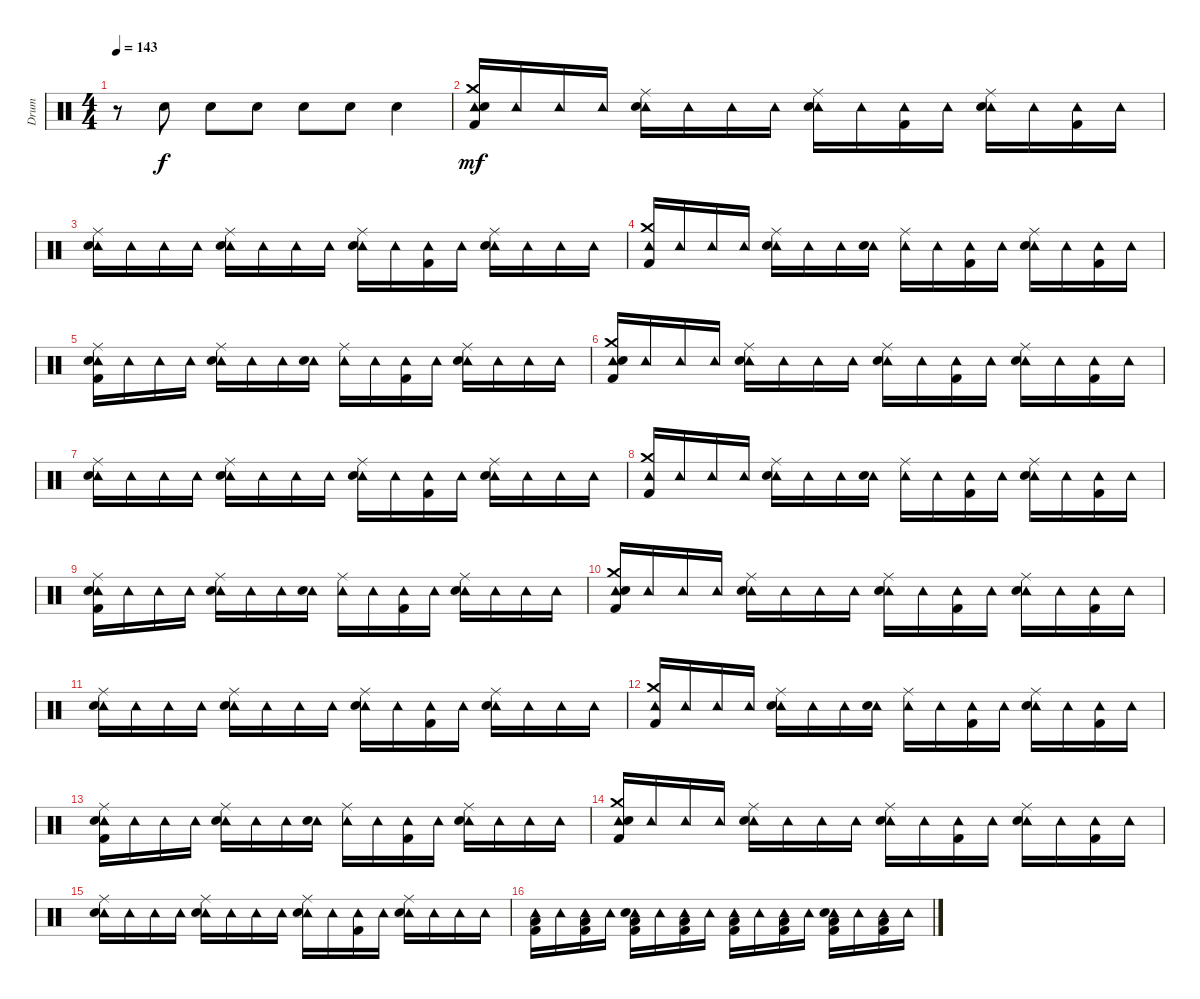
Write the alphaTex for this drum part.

\track ("Drum" "Drum") {instrument percussion}
\staff {score}
\articulation defaults
\ts (4 4)
\tempo 143
\clef neutral
\ks c
r.8{dy f} "Snare (hit) 2".8 "Snare (hit) 2".8 "Snare (hit) 2".8 "Snare (hit) 2".8 "Snare (hit) 2".8 "Snare (hit) 2".4 |
("Tambourine (hit)" "Crash medium (hit)" "Snare (hit) 2" "Kick (hit) 2").16{dy mf} "Tambourine (hit)".16 "Tambourine (hit)".16 "Tambourine (hit)".16 ("Tambourine (hit)" "Ride (middle)" "Snare (hit) 2").16 "Tambourine (hit)".16 "Tambourine (hit)".16 "Tambourine (hit)".16 ("Tambourine (hit)" "Ride (middle)" "Snare (hit) 2").16 "Tambourine (hit)".16 ("Tambourine (hit)" "Kick (hit) 2").16 "Tambourine (hit)".16 ("Tambourine (hit)" "Ride (middle)" "Snare (hit) 2").16 "Tambourine (hit)".16 ("Tambourine (hit)" "Kick (hit) 2").16 "Tambourine (hit)".16 |
("Tambourine (hit)" "Ride (middle)" "Snare (hit) 2").16 "Tambourine (hit)".16 "Tambourine (hit)".16 "Tambourine (hit)".16 ("Tambourine (hit)" "Ride (middle)" "Snare (hit) 2").16 "Tambourine (hit)".16 "Tambourine (hit)".16 "Tambourine (hit)".16 ("Tambourine (hit)" "Ride (middle)" "Snare (hit) 2").16 "Tambourine (hit)".16 ("Tambourine (hit)" "Kick (hit) 2").16 "Tambourine (hit)".16 ("Tambourine (hit)" "Ride (middle)" "Snare (hit) 2").16 "Tambourine (hit)".16 "Tambourine (hit)".16 "Tambourine (hit)".16 |
("Tambourine (hit)" "Crash medium (hit)" "Kick (hit) 2").16 "Tambourine (hit)".16 "Tambourine (hit)".16 "Tambourine (hit)".16 ("Tambourine (hit)" "Ride (middle)" "Snare (hit) 2").16 "Tambourine (hit)".16 "Tambourine (hit)".16 ("Tambourine (hit)" "Snare (hit) 2").16 ("Tambourine (hit)" "Ride (middle)").16 "Tambourine (hit)".16 ("Tambourine (hit)" "Kick (hit) 2").16 "Tambourine (hit)".16 ("Tambourine (hit)" "Ride (middle)" "Snare (hit) 2").16 "Tambourine (hit)".16 ("Tambourine (hit)" "Kick (hit) 2").16 "Tambourine (hit)".16 |
("Tambourine (hit)" "Ride (middle)" "Snare (hit) 2" "Kick (hit) 2").16 "Tambourine (hit)".16 "Tambourine (hit)".16 "Tambourine (hit)".16 ("Tambourine (hit)" "Ride (middle)" "Snare (hit) 2").16 "Tambourine (hit)".16 "Tambourine (hit)".16 ("Tambourine (hit)" "Snare (hit) 2").16 ("Tambourine (hit)" "Ride (middle)").16 "Tambourine (hit)".16 ("Tambourine (hit)" "Kick (hit) 2").16 "Tambourine (hit)".16 ("Tambourine (hit)" "Ride (middle)" "Snare (hit) 2").16 "Tambourine (hit)".16 "Tambourine (hit)".16 "Tambourine (hit)".16 |
("Tambourine (hit)" "Crash medium (hit)" "Snare (hit) 2" "Kick (hit) 2").16 "Tambourine (hit)".16 "Tambourine (hit)".16 "Tambourine (hit)".16 ("Tambourine (hit)" "Ride (middle)" "Snare (hit) 2").16 "Tambourine (hit)".16 "Tambourine (hit)".16 "Tambourine (hit)".16 ("Tambourine (hit)" "Ride (middle)" "Snare (hit) 2").16 "Tambourine (hit)".16 ("Tambourine (hit)" "Kick (hit) 2").16 "Tambourine (hit)".16 ("Tambourine (hit)" "Ride (middle)" "Snare (hit) 2").16 "Tambourine (hit)".16 ("Tambourine (hit)" "Kick (hit) 2").16 "Tambourine (hit)".16 |
("Tambourine (hit)" "Ride (middle)" "Snare (hit) 2").16 "Tambourine (hit)".16 "Tambourine (hit)".16 "Tambourine (hit)".16 ("Tambourine (hit)" "Ride (middle)" "Snare (hit) 2").16 "Tambourine (hit)".16 "Tambourine (hit)".16 "Tambourine (hit)".16 ("Tambourine (hit)" "Ride (middle)" "Snare (hit) 2").16 "Tambourine (hit)".16 ("Tambourine (hit)" "Kick (hit) 2").16 "Tambourine (hit)".16 ("Tambourine (hit)" "Ride (middle)" "Snare (hit) 2").16 "Tambourine (hit)".16 "Tambourine (hit)".16 "Tambourine (hit)".16 |
("Tambourine (hit)" "Crash medium (hit)" "Kick (hit) 2").16 "Tambourine (hit)".16 "Tambourine (hit)".16 "Tambourine (hit)".16 ("Tambourine (hit)" "Ride (middle)" "Snare (hit) 2").16 "Tambourine (hit)".16 "Tambourine (hit)".16 ("Tambourine (hit)" "Snare (hit) 2").16 ("Tambourine (hit)" "Ride (middle)").16 "Tambourine (hit)".16 ("Tambourine (hit)" "Kick (hit) 2").16 "Tambourine (hit)".16 ("Tambourine (hit)" "Ride (middle)" "Snare (hit) 2").16 "Tambourine (hit)".16 ("Tambourine (hit)" "Kick (hit) 2").16 "Tambourine (hit)".16 |
("Tambourine (hit)" "Ride (middle)" "Snare (hit) 2" "Kick (hit) 2").16 "Tambourine (hit)".16 "Tambourine (hit)".16 "Tambourine (hit)".16 ("Tambourine (hit)" "Ride (middle)" "Snare (hit) 2").16 "Tambourine (hit)".16 "Tambourine (hit)".16 ("Tambourine (hit)" "Snare (hit) 2").16 ("Tambourine (hit)" "Ride (middle)").16 "Tambourine (hit)".16 ("Tambourine (hit)" "Kick (hit) 2").16 "Tambourine (hit)".16 ("Tambourine (hit)" "Ride (middle)" "Snare (hit) 2").16 "Tambourine (hit)".16 "Tambourine (hit)".16 "Tambourine (hit)".16 |
("Tambourine (hit)" "Crash medium (hit)" "Snare (hit) 2" "Kick (hit) 2").16 "Tambourine (hit)".16 "Tambourine (hit)".16 "Tambourine (hit)".16 ("Tambourine (hit)" "Ride (middle)" "Snare (hit) 2").16 "Tambourine (hit)".16 "Tambourine (hit)".16 "Tambourine (hit)".16 ("Tambourine (hit)" "Ride (middle)" "Snare (hit) 2").16 "Tambourine (hit)".16 ("Tambourine (hit)" "Kick (hit) 2").16 "Tambourine (hit)".16 ("Tambourine (hit)" "Ride (middle)" "Snare (hit) 2").16 "Tambourine (hit)".16 ("Tambourine (hit)" "Kick (hit) 2").16 "Tambourine (hit)".16 |
("Tambourine (hit)" "Ride (middle)" "Snare (hit) 2").16 "Tambourine (hit)".16 "Tambourine (hit)".16 "Tambourine (hit)".16 ("Tambourine (hit)" "Ride (middle)" "Snare (hit) 2").16 "Tambourine (hit)".16 "Tambourine (hit)".16 "Tambourine (hit)".16 ("Tambourine (hit)" "Ride (middle)" "Snare (hit) 2").16 "Tambourine (hit)".16 ("Tambourine (hit)" "Kick (hit) 2").16 "Tambourine (hit)".16 ("Tambourine (hit)" "Ride (middle)" "Snare (hit) 2").16 "Tambourine (hit)".16 "Tambourine (hit)".16 "Tambourine (hit)".16 |
("Tambourine (hit)" "Crash medium (hit)" "Kick (hit) 2").16 "Tambourine (hit)".16 "Tambourine (hit)".16 "Tambourine (hit)".16 ("Tambourine (hit)" "Ride (middle)" "Snare (hit) 2").16 "Tambourine (hit)".16 "Tambourine (hit)".16 ("Tambourine (hit)" "Snare (hit) 2").16 ("Tambourine (hit)" "Ride (middle)").16 "Tambourine (hit)".16 ("Tambourine (hit)" "Kick (hit) 2").16 "Tambourine (hit)".16 ("Tambourine (hit)" "Ride (middle)" "Snare (hit) 2").16 "Tambourine (hit)".16 ("Tambourine (hit)" "Kick (hit) 2").16 "Tambourine (hit)".16 |
("Tambourine (hit)" "Ride (middle)" "Snare (hit) 2" "Kick (hit) 2").16 "Tambourine (hit)".16 "Tambourine (hit)".16 "Tambourine (hit)".16 ("Tambourine (hit)" "Ride (middle)" "Snare (hit) 2").16 "Tambourine (hit)".16 "Tambourine (hit)".16 ("Tambourine (hit)" "Snare (hit) 2").16 ("Tambourine (hit)" "Ride (middle)").16 "Tambourine (hit)".16 ("Tambourine (hit)" "Kick (hit) 2").16 "Tambourine (hit)".16 ("Tambourine (hit)" "Ride (middle)" "Snare (hit) 2").16 "Tambourine (hit)".16 "Tambourine (hit)".16 "Tambourine (hit)".16 |
("Tambourine (hit)" "Crash medium (hit)" "Snare (hit) 2" "Kick (hit) 2").16 "Tambourine (hit)".16 "Tambourine (hit)".16 "Tambourine (hit)".16 ("Tambourine (hit)" "Ride (middle)" "Snare (hit) 2").16 "Tambourine (hit)".16 "Tambourine (hit)".16 "Tambourine (hit)".16 ("Tambourine (hit)" "Ride (middle)" "Snare (hit) 2").16 "Tambourine (hit)".16 ("Tambourine (hit)" "Kick (hit) 2").16 "Tambourine (hit)".16 ("Tambourine (hit)" "Ride (middle)" "Snare (hit) 2").16 "Tambourine (hit)".16 ("Tambourine (hit)" "Kick (hit) 2").16 "Tambourine (hit)".16 |
("Tambourine (hit)" "Ride (middle)" "Snare (hit) 2").16 "Tambourine (hit)".16 "Tambourine (hit)".16 "Tambourine (hit)".16 ("Tambourine (hit)" "Ride (middle)" "Snare (hit) 2").16 "Tambourine (hit)".16 "Tambourine (hit)".16 "Tambourine (hit)".16 ("Tambourine (hit)" "Ride (middle)" "Snare (hit) 2").16 "Tambourine (hit)".16 ("Tambourine (hit)" "Kick (hit) 2").16 "Tambourine (hit)".16 ("Tambourine (hit)" "Ride (middle)" "Snare (hit) 2").16 "Tambourine (hit)".16 "Tambourine (hit)".16 "Tambourine (hit)".16 |
("Tambourine (hit)" "Low Floor Tom (hit)" "Kick (hit) 2").16 "Tambourine (hit)".16 ("Tambourine (hit)" "Low Floor Tom (hit)" "Kick (hit) 2").16 "Tambourine (hit)".16 ("Tambourine (hit)" "Snare (hit) 2" "Low Floor Tom (hit)" "Kick (hit) 2").16 "Tambourine (hit)".16 ("Tambourine (hit)" "Low Floor Tom (hit)" "Kick (hit) 2").16 "Tambourine (hit)".16 ("Tambourine (hit)" "Low Floor Tom (hit)" "Kick (hit) 2").16 "Tambourine (hit)".16 ("Tambourine (hit)" "Low Floor Tom (hit)" "Kick (hit) 2").16 "Tambourine (hit)".16 ("Tambourine (hit)" "Snare (hit) 2" "Low Floor Tom (hit)" "Kick (hit) 2").16 "Tambourine (hit)".16 ("Tambourine (hit)" "Low Floor Tom (hit)" "Kick (hit) 2").16 "Tambourine (hit)".16
